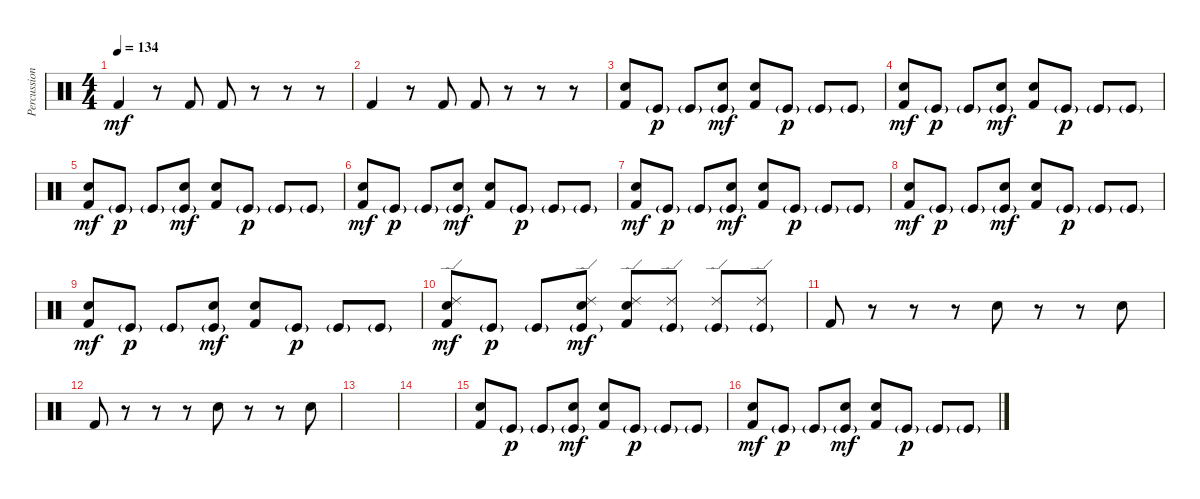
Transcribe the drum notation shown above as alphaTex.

\track ("Percussion" "Percussion") {instrument percussion}
\staff {score}
\articulation defaults
\ts (4 4)
\tempo 134
\clef neutral
\ks c "Kick (hit) 2".4{dy mf}
r.8 "Kick (hit) 2".8 "Kick (hit) 2".8 r.8 r.8 r.8 |
"Kick (hit) 2".4 r.8 "Kick (hit) 2".8 "Kick (hit) 2".8 r.8 r.8 r.8 |
("Kick (hit) 2" "Snare (hit) 2").8 "Kick (hit)"{g}.8{dy p} "Kick (hit)"{g}.8 ("Kick (hit)"{g} "Snare (hit) 2").8{dy mf} ("Kick (hit) 2" "Snare (hit) 2").8 "Kick (hit)"{g}.8{dy p} "Kick (hit)"{g}.8 "Kick (hit)"{g}.8 |
("Kick (hit) 2" "Snare (hit) 2").8{dy mf} "Kick (hit)"{g}.8{dy p} "Kick (hit)"{g}.8 ("Kick (hit)"{g} "Snare (hit) 2").8{dy mf} ("Kick (hit) 2" "Snare (hit) 2").8 "Kick (hit)"{g}.8{dy p} "Kick (hit)"{g}.8 "Kick (hit)"{g}.8 |
("Kick (hit) 2" "Snare (hit) 2").8{dy mf} "Kick (hit)"{g}.8{dy p} "Kick (hit)"{g}.8 ("Kick (hit)"{g} "Snare (hit) 2").8{dy mf} ("Kick (hit) 2" "Snare (hit) 2").8 "Kick (hit)"{g}.8{dy p} "Kick (hit)"{g}.8 "Kick (hit)"{g}.8 |
("Kick (hit) 2" "Snare (hit) 2").8{dy mf} "Kick (hit)"{g}.8{dy p} "Kick (hit)"{g}.8 ("Kick (hit)"{g} "Snare (hit) 2").8{dy mf} ("Kick (hit) 2" "Snare (hit) 2").8 "Kick (hit)"{g}.8{dy p} "Kick (hit)"{g}.8 "Kick (hit)"{g}.8 |
("Kick (hit) 2" "Snare (hit) 2").8{dy mf} "Kick (hit)"{g}.8{dy p} "Kick (hit)"{g}.8 ("Kick (hit)"{g} "Snare (hit) 2").8{dy mf} ("Kick (hit) 2" "Snare (hit) 2").8 "Kick (hit)"{g}.8{dy p} "Kick (hit)"{g}.8 "Kick (hit)"{g}.8 |
("Kick (hit) 2" "Snare (hit) 2").8{dy mf} "Kick (hit)"{g}.8{dy p} "Kick (hit)"{g}.8 ("Kick (hit)"{g} "Snare (hit) 2").8{dy mf} ("Kick (hit) 2" "Snare (hit) 2").8 "Kick (hit)"{g}.8{dy p} "Kick (hit)"{g}.8 "Kick (hit)"{g}.8 |
("Kick (hit) 2" "Snare (hit) 2").8{dy mf} "Kick (hit)"{g}.8{dy p} "Kick (hit)"{g}.8 ("Kick (hit)"{g} "Snare (hit) 2").8{dy mf} ("Kick (hit) 2" "Snare (hit) 2").8 "Kick (hit)"{g}.8{dy p} "Kick (hit)"{g}.8 "Kick (hit)"{g}.8 |
("Kick (hit) 2" "Snare (hit) 2" "Ride (edge) 2").8{dy mf} "Kick (hit)"{g}.8{dy p} "Kick (hit)"{g}.8 ("Kick (hit)"{g} "Snare (hit) 2" "Ride (edge) 2").8{dy mf} ("Kick (hit) 2" "Snare (hit) 2" "Ride (edge) 2").8 ("Kick (hit)"{g} "Ride (edge) 2").8 ("Kick (hit)"{g} "Ride (edge) 2").8 ("Kick (hit)"{g} "Ride (edge) 2").8 |
"Kick (hit) 2".8 r.8 r.8 r.8 "Snare (hit) 2".8 r.8 r.8 "Snare (hit) 2".8 |
"Kick (hit) 2".8 r.8 r.8 r.8 "Snare (hit) 2".8 r.8 r.8 "Snare (hit) 2".8 |
|
|
("Kick (hit) 2" "Snare (hit) 2").8 "Kick (hit)"{g}.8{dy p} "Kick (hit)"{g}.8 ("Kick (hit)"{g} "Snare (hit) 2").8{dy mf} ("Kick (hit) 2" "Snare (hit) 2").8 "Kick (hit)"{g}.8{dy p} "Kick (hit)"{g}.8 "Kick (hit)"{g}.8 |
("Kick (hit) 2" "Snare (hit) 2").8{dy mf} "Kick (hit)"{g}.8{dy p} "Kick (hit)"{g}.8 ("Kick (hit)"{g} "Snare (hit) 2").8{dy mf} ("Kick (hit) 2" "Snare (hit) 2").8 "Kick (hit)"{g}.8{dy p} "Kick (hit)"{g}.8 "Kick (hit)"{g}.8
